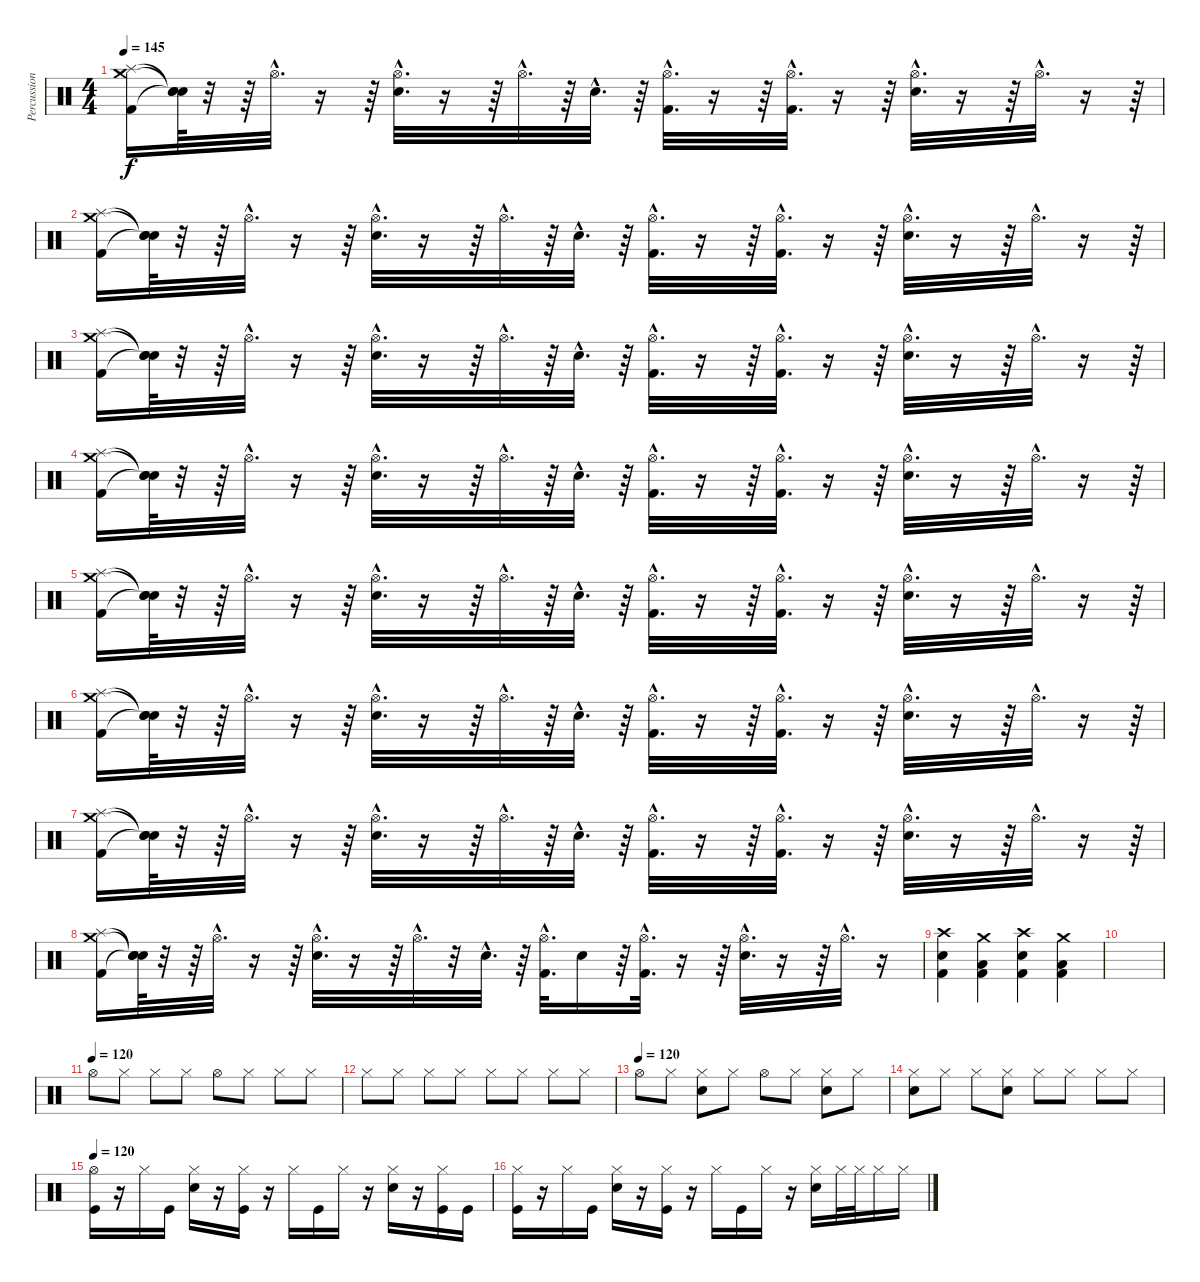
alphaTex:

\track ("Percussions" "Percussion") {instrument percussion}
\staff {score}
\articulation defaults
\ts (4 4)
\tempo 145
\clef neutral
\ks c
("Crash medium (hit)" "Splash (hit)" "Kick (hit) 2").16{dy f} ("Snare (hit)"{t} "Snare (hit)"{t} "Snare (hit)"{t}).64 r.32 r.64 "Hi-Hat (open)"{hac}.32{d} r.16 r.64 ("Hi-Hat (open)"{hac} "Electric Snare (hit)"{hac}).32{d} r.16 r.64 "Hi-Hat (open)"{hac}.32{d} r.64 "Electric Snare (hit)"{hac}.32{d} r.64 ("Hi-Hat (open)"{hac} "Kick (hit) 2"{hac}).32{d} r.16 r.64 ("Hi-Hat (open)"{hac} "Kick (hit) 2"{hac}).32{d} r.16 r.64 ("Hi-Hat (open)"{hac} "Electric Snare (hit)"{hac}).32{d} r.16 r.64 "Hi-Hat (open)"{hac}.32{d} r.16 r.64 |
("Crash medium (hit)" "Splash (hit)" "Kick (hit) 2").16 ("Snare (hit)"{t} "Snare (hit)"{t} "Snare (hit)"{t}).64 r.32 r.64 "Hi-Hat (open)"{hac}.32{d} r.16 r.64 ("Hi-Hat (open)"{hac} "Electric Snare (hit)"{hac}).32{d} r.16 r.64 "Hi-Hat (open)"{hac}.32{d} r.64 "Electric Snare (hit)"{hac}.32{d} r.64 ("Hi-Hat (open)"{hac} "Kick (hit) 2"{hac}).32{d} r.16 r.64 ("Hi-Hat (open)"{hac} "Kick (hit) 2"{hac}).32{d} r.16 r.64 ("Hi-Hat (open)"{hac} "Electric Snare (hit)"{hac}).32{d} r.16 r.64 "Hi-Hat (open)"{hac}.32{d} r.16 r.64 |
("Crash medium (hit)" "Splash (hit)" "Kick (hit) 2").16 ("Snare (hit)"{t} "Snare (hit)"{t} "Snare (hit)"{t}).64 r.32 r.64 "Hi-Hat (open)"{hac}.32{d} r.16 r.64 ("Hi-Hat (open)"{hac} "Electric Snare (hit)"{hac}).32{d} r.16 r.64 "Hi-Hat (open)"{hac}.32{d} r.64 "Electric Snare (hit)"{hac}.32{d} r.64 ("Hi-Hat (open)"{hac} "Kick (hit) 2"{hac}).32{d} r.16 r.64 ("Hi-Hat (open)"{hac} "Kick (hit) 2"{hac}).32{d} r.16 r.64 ("Hi-Hat (open)"{hac} "Electric Snare (hit)"{hac}).32{d} r.16 r.64 "Hi-Hat (open)"{hac}.32{d} r.16 r.64 |
("Crash medium (hit)" "Splash (hit)" "Kick (hit) 2").16 ("Snare (hit)"{t} "Snare (hit)"{t} "Snare (hit)"{t}).64 r.32 r.64 "Hi-Hat (open)"{hac}.32{d} r.16 r.64 ("Hi-Hat (open)"{hac} "Electric Snare (hit)"{hac}).32{d} r.16 r.64 "Hi-Hat (open)"{hac}.32{d} r.64 "Electric Snare (hit)"{hac}.32{d} r.64 ("Hi-Hat (open)"{hac} "Kick (hit) 2"{hac}).32{d} r.16 r.64 ("Hi-Hat (open)"{hac} "Kick (hit) 2"{hac}).32{d} r.16 r.64 ("Hi-Hat (open)"{hac} "Electric Snare (hit)"{hac}).32{d} r.16 r.64 "Hi-Hat (open)"{hac}.32{d} r.16 r.64 |
("Crash medium (hit)" "Splash (hit)" "Kick (hit) 2").16 ("Snare (hit)"{t} "Snare (hit)"{t} "Snare (hit)"{t}).64 r.32 r.64 "Hi-Hat (open)"{hac}.32{d} r.16 r.64 ("Hi-Hat (open)"{hac} "Electric Snare (hit)"{hac}).32{d} r.16 r.64 "Hi-Hat (open)"{hac}.32{d} r.64 "Electric Snare (hit)"{hac}.32{d} r.64 ("Hi-Hat (open)"{hac} "Kick (hit) 2"{hac}).32{d} r.16 r.64 ("Hi-Hat (open)"{hac} "Kick (hit) 2"{hac}).32{d} r.16 r.64 ("Hi-Hat (open)"{hac} "Electric Snare (hit)"{hac}).32{d} r.16 r.64 "Hi-Hat (open)"{hac}.32{d} r.16 r.64 |
("Crash medium (hit)" "Splash (hit)" "Kick (hit) 2").16 ("Snare (hit)"{t} "Snare (hit)"{t} "Snare (hit)"{t}).64 r.32 r.64 "Hi-Hat (open)"{hac}.32{d} r.16 r.64 ("Hi-Hat (open)"{hac} "Electric Snare (hit)"{hac}).32{d} r.16 r.64 "Hi-Hat (open)"{hac}.32{d} r.64 "Electric Snare (hit)"{hac}.32{d} r.64 ("Hi-Hat (open)"{hac} "Kick (hit) 2"{hac}).32{d} r.16 r.64 ("Hi-Hat (open)"{hac} "Kick (hit) 2"{hac}).32{d} r.16 r.64 ("Hi-Hat (open)"{hac} "Electric Snare (hit)"{hac}).32{d} r.16 r.64 "Hi-Hat (open)"{hac}.32{d} r.16 r.64 |
("Crash medium (hit)" "Splash (hit)" "Kick (hit) 2").16 ("Snare (hit)"{t} "Snare (hit)"{t} "Snare (hit)"{t}).64 r.32 r.64 "Hi-Hat (open)"{hac}.32{d} r.16 r.64 ("Hi-Hat (open)"{hac} "Electric Snare (hit)"{hac}).32{d} r.16 r.64 "Hi-Hat (open)"{hac}.32{d} r.64 "Electric Snare (hit)"{hac}.32{d} r.64 ("Hi-Hat (open)"{hac} "Kick (hit) 2"{hac}).32{d} r.16 r.64 ("Hi-Hat (open)"{hac} "Kick (hit) 2"{hac}).32{d} r.16 r.64 ("Hi-Hat (open)"{hac} "Electric Snare (hit)"{hac}).32{d} r.16 r.64 "Hi-Hat (open)"{hac}.32{d} r.16 r.64 |
("Crash medium (hit)" "Splash (hit)" "Kick (hit) 2").16 ("Snare (hit)"{t} "Snare (hit)"{t} "Snare (hit)"{t}).64 r.32 r.64 "Hi-Hat (open)"{hac}.32{d} r.16 r.64 ("Hi-Hat (open)"{hac} "Electric Snare (hit)"{hac}).32{d} r.16 r.64 "Hi-Hat (open)"{hac}.32{d} r.32 "Electric Snare (hit)"{hac}.32{d} r.64 ("Hi-Hat (open)"{hac} "Kick (hit) 2"{hac}).32{d} "Electric Snare (hit)".16 r.64 ("Hi-Hat (open)"{hac} "Kick (hit) 2"{hac}).32{d} r.16 r.64 ("Hi-Hat (open)"{hac} "Electric Snare (hit)"{hac}).32{d} r.16 r.64 "Hi-Hat (open)"{hac}.32{d} r.16 |
("Crash high (hit)" "Kick (hit) 2" "Snare (hit) 2").4 ("Crash medium (hit)" "Low Floor Tom (hit)" "Kick (hit) 2").4 ("Crash high (hit)" "Snare (hit) 2" "Kick (hit) 2").4 ("Crash medium (hit)" "Low Floor Tom (hit)" "Kick (hit) 2").4 |
|
\tempo (120)
"Hi-Hat (open)".8 "Hi-Hat (closed)".8 "Hi-Hat (closed)".8 "Hi-Hat (closed)".8 "Hi-Hat (open)".8 "Hi-Hat (closed)".8 "Hi-Hat (closed)".8 "Hi-Hat (closed)".8 |
"Hi-Hat (closed)".8 "Hi-Hat (closed)".8 "Hi-Hat (closed)".8 "Hi-Hat (closed)".8 "Hi-Hat (closed)".8 "Hi-Hat (closed)".8 "Hi-Hat (closed)".8 "Hi-Hat (closed)".8 |
\tempo (120)
"Hi-Hat (open)".8 "Hi-Hat (closed)".8 ("Hi-Hat (closed)" "Snare (hit) 2").8 "Hi-Hat (closed)".8 "Hi-Hat (open)".8 "Hi-Hat (closed)".8 ("Hi-Hat (closed)" "Snare (hit) 2").8 "Hi-Hat (closed)".8 |
("Hi-Hat (closed)" "Snare (hit) 2").8 "Hi-Hat (closed)".8 "Hi-Hat (closed)".8 ("Hi-Hat (closed)" "Snare (hit) 2").8 "Hi-Hat (closed)".8 "Hi-Hat (closed)".8 "Hi-Hat (closed)".8 "Hi-Hat (closed)".8 |
\tempo 120
("Hi-Hat (open)" "Kick (hit)").16 r.16 "Hi-Hat (closed)".16 "Kick (hit)".16 ("Hi-Hat (closed)" "Snare (hit) 2").16 r.16 ("Hi-Hat (closed)" "Kick (hit)").16 r.16 "Hi-Hat (closed)".16 "Kick (hit)".16 "Hi-Hat (closed)".16 r.16 ("Hi-Hat (closed)" "Snare (hit) 2").16 r.16 ("Hi-Hat (closed)" "Kick (hit)").16 "Kick (hit)".16 |
("Hi-Hat (closed)" "Kick (hit)").16 r.16 "Hi-Hat (closed)".16 "Kick (hit)".16 ("Hi-Hat (closed)" "Snare (hit) 2").16 r.16 ("Hi-Hat (closed)" "Kick (hit)").16 r.16 "Hi-Hat (closed)".16 "Kick (hit)".16 "Hi-Hat (closed)".16 r.16 ("Hi-Hat (closed)" "Snare (hit) 2").16 "Hi-Hat (closed)".32 "Hi-Hat (closed)".32 "Hi-Hat (closed)".16 "Hi-Hat (closed)".16
